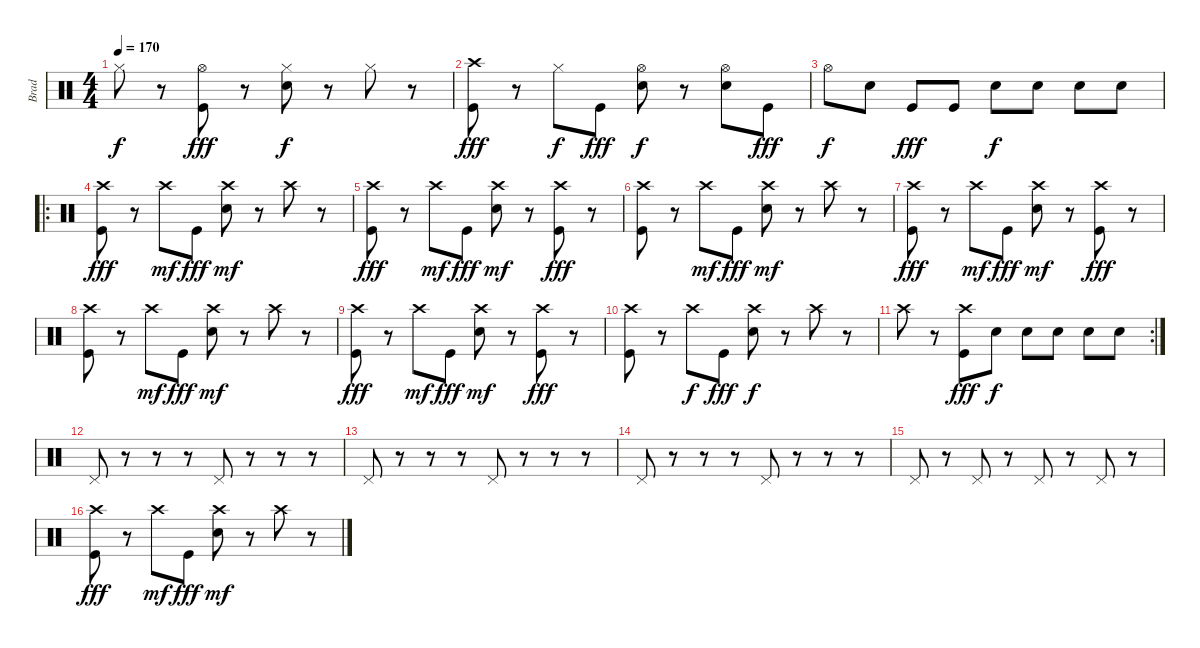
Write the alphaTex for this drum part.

\track ("Brad" "Brad") {instrument percussion}
\staff {score}
\articulation defaults
\ts (4 4)
\tempo 170
\clef neutral
\ks c "Hi-Hat (closed)".8{dy f}
r.8 ("Hi-Hat (open)" "Kick (hit)").8{dy fff} r.8 ("Hi-Hat (closed)" "Electric Snare (hit)").8{dy f} r.8 "Hi-Hat (closed)".8 r.8 |
("Crash high (hit)" "Kick (hit)").8{dy fff} r.8 "Hi-Hat (closed)".8{dy f} "Kick (hit)".8{dy fff} ("Hi-Hat (open)" "Electric Snare (hit)").8{dy f} r.8 ("Hi-Hat (open)" "Electric Snare (hit)").8 "Kick (hit)".8{dy fff} |
"Hi-Hat (open)".8{dy f} "Electric Snare (hit)".8 "Kick (hit)".8{dy fff} "Kick (hit)".8 "Electric Snare (hit)".8{dy f} "Electric Snare (hit)".8 "Electric Snare (hit)".8 "Electric Snare (hit)".8 |
\ro
("Crash high (hit)" "Kick (hit)").8{dy fff} r.8 "Crash high (hit)".8{dy mf} "Kick (hit)".8{dy fff} ("Crash high (hit)" "Electric Snare (hit)").8{dy mf} r.8 "Crash high (hit)".8 r.8 |
("Crash high (hit)" "Kick (hit)").8{dy fff} r.8 "Crash high (hit)".8{dy mf} "Kick (hit)".8{dy fff} ("Crash high (hit)" "Electric Snare (hit)").8{dy mf} r.8 ("Crash high (hit)" "Kick (hit)").8{dy fff} r.8 |
("Crash high (hit)" "Kick (hit)").8 r.8 "Crash high (hit)".8{dy mf} "Kick (hit)".8{dy fff} ("Crash high (hit)" "Electric Snare (hit)").8{dy mf} r.8 "Crash high (hit)".8 r.8 |
("Crash high (hit)" "Kick (hit)").8{dy fff} r.8 "Crash high (hit)".8{dy mf} "Kick (hit)".8{dy fff} ("Crash high (hit)" "Electric Snare (hit)").8{dy mf} r.8 ("Crash high (hit)" "Kick (hit)").8{dy fff} r.8 |
("Crash high (hit)" "Kick (hit)").8 r.8 "Crash high (hit)".8{dy mf} "Kick (hit)".8{dy fff} ("Crash high (hit)" "Electric Snare (hit)").8{dy mf} r.8 "Crash high (hit)".8 r.8 |
("Crash high (hit)" "Kick (hit)").8{dy fff} r.8 "Crash high (hit)".8{dy mf} "Kick (hit)".8{dy fff} ("Crash high (hit)" "Electric Snare (hit)").8{dy mf} r.8 ("Crash high (hit)" "Kick (hit)").8{dy fff} r.8 |
("Crash high (hit)" "Kick (hit)").8 r.8 "Crash high (hit)".8{dy f} "Kick (hit)".8{dy fff} ("Crash high (hit)" "Electric Snare (hit)").8{dy f} r.8 "Crash high (hit)".8 r.8 |
\rc 2 "Crash high (hit)".8
r.8 ("Crash high (hit)" "Kick (hit)").8{dy fff} "Electric Snare (hit)".8{dy f} "Electric Snare (hit)".8 "Electric Snare (hit)".8 "Electric Snare (hit)".8 "Electric Snare (hit)".8 |
"Pedal Hi-Hat (hit)".8 r.8 r.8 r.8 "Pedal Hi-Hat (hit)".8 r.8 r.8 r.8 |
"Pedal Hi-Hat (hit)".8 r.8 r.8 r.8 "Pedal Hi-Hat (hit)".8 r.8 r.8 r.8 |
"Pedal Hi-Hat (hit)".8 r.8 r.8 r.8 "Pedal Hi-Hat (hit)".8 r.8 r.8 r.8 |
"Pedal Hi-Hat (hit)".8 r.8 "Pedal Hi-Hat (hit)".8 r.8 "Pedal Hi-Hat (hit)".8 r.8 "Pedal Hi-Hat (hit)".8 r.8 |
("Crash high (hit)" "Kick (hit)").8{dy fff} r.8 "Crash high (hit)".8{dy mf} "Kick (hit)".8{dy fff} ("Crash high (hit)" "Electric Snare (hit)").8{dy mf} r.8 "Crash high (hit)".8 r.8
